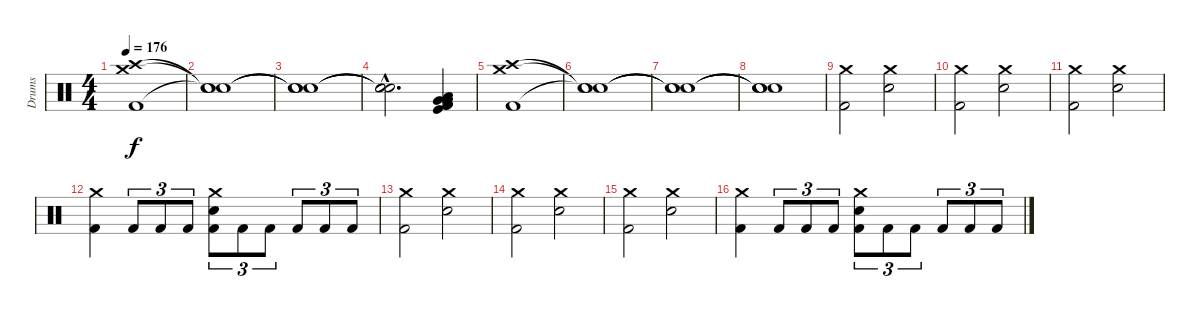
\track ("Drums" "Drums") {instrument percussion}
\staff {score}
\articulation defaults
\ts (4 4)
\tempo 176
\clef neutral
\ks c
("Crash medium (hit)" "Crash high (hit)" "Kick (hit) 2").1{dy f} |
("Snare (hit)"{t} "Snare (hit)"{t} "Snare (hit)"{t}).1 |
("Snare (hit)"{t} "Snare (hit)"{t} "Snare (hit)"{t}).1 |
("Snare (hit)"{hac t} "Snare (hit)"{hac t} "Snare (hit)"{hac t}).2{d} ("Kick (hit) 2" "Kick (hit)" "Very Low Tom (hit)" "Very Low Tom (hit)" "Low Tom (hit)" "Kick (hit) 2").4 |
("Crash medium (hit)" "Crash high (hit)" "Kick (hit) 2").1 |
("Snare (hit)"{t} "Snare (hit)"{t} "Snare (hit)"{t}).1 |
("Snare (hit)"{t} "Snare (hit)"{t} "Snare (hit)"{t}).1 |
("Snare (hit)"{t} "Snare (hit)"{t} "Snare (hit)"{t}).1 |
("Crash medium (hit)" "Kick (hit) 2").2 ("Crash medium (hit)" "Electric Snare (hit)").2 |
("Crash medium (hit)" "Kick (hit) 2").2 ("Crash medium (hit)" "Electric Snare (hit)").2 |
("Crash medium (hit)" "Kick (hit) 2").2 ("Crash medium (hit)" "Electric Snare (hit)").2 |
("Crash medium (hit)" "Kick (hit) 2").4 "Kick (hit) 2".8{tu (3 2)} "Kick (hit) 2".8{tu (3 2)} "Kick (hit) 2".8{tu (3 2)} ("Crash medium (hit)" "Electric Snare (hit)" "Kick (hit) 2").8{tu (3 2)} "Kick (hit) 2".8{tu (3 2)} "Kick (hit) 2".8{tu (3 2)} "Kick (hit) 2".8{tu (3 2)} "Kick (hit) 2".8{tu (3 2)} "Kick (hit) 2".8{tu (3 2)} |
("Crash medium (hit)" "Kick (hit) 2").2 ("Crash medium (hit)" "Electric Snare (hit)").2 |
("Crash medium (hit)" "Kick (hit) 2").2 ("Crash medium (hit)" "Electric Snare (hit)").2 |
("Crash medium (hit)" "Kick (hit) 2").2 ("Crash medium (hit)" "Electric Snare (hit)").2 |
("Crash medium (hit)" "Kick (hit) 2").4 "Kick (hit) 2".8{tu (3 2)} "Kick (hit) 2".8{tu (3 2)} "Kick (hit) 2".8{tu (3 2)} ("Crash medium (hit)" "Electric Snare (hit)" "Kick (hit) 2").8{tu (3 2)} "Kick (hit) 2".8{tu (3 2)} "Kick (hit) 2".8{tu (3 2)} "Kick (hit) 2".8{tu (3 2)} "Kick (hit) 2".8{tu (3 2)} "Kick (hit) 2".8{tu (3 2)}
